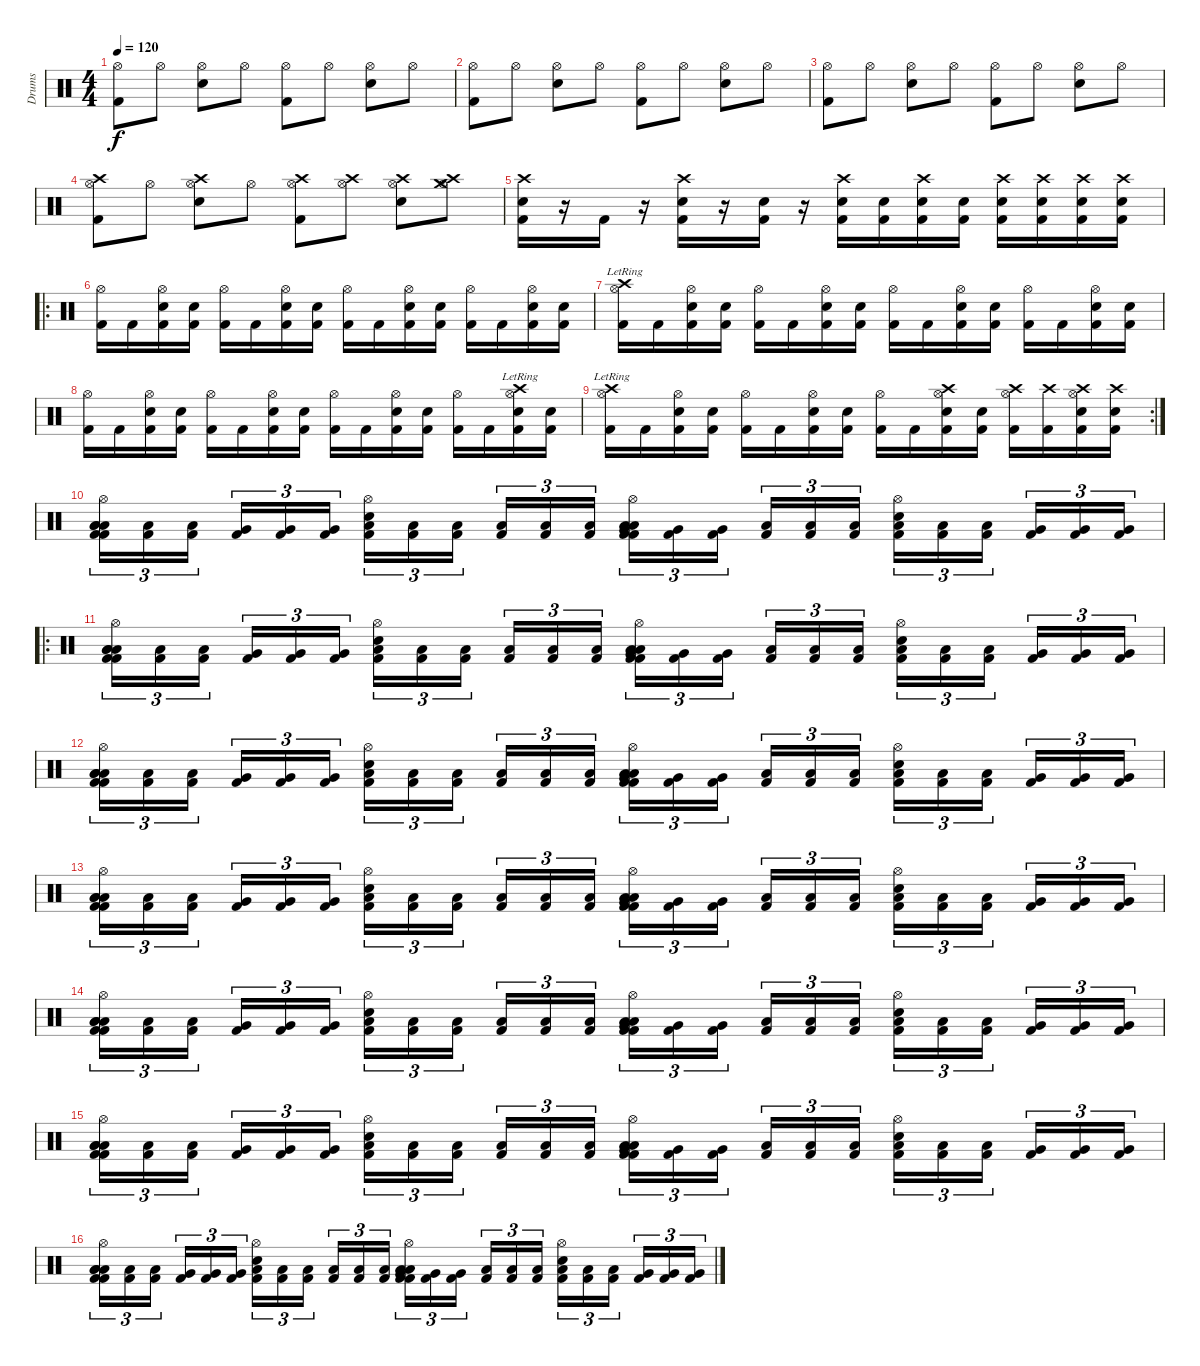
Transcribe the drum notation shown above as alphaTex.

\track ("Drums" "Drums") {instrument percussion}
\staff {score}
\articulation defaults
\ts (4 4)
\tempo 120
\clef neutral
\ks c
("Hi-Hat (open)" "Kick (hit) 2").8{dy f} "Hi-Hat (open)".8 ("Hi-Hat (open)" "Snare (hit) 2").8 "Hi-Hat (open)".8 ("Hi-Hat (open)" "Kick (hit) 2").8 "Hi-Hat (open)".8 ("Hi-Hat (open)" "Snare (hit) 2").8 "Hi-Hat (open)".8 |
("Hi-Hat (open)" "Kick (hit) 2").8 "Hi-Hat (open)".8 ("Hi-Hat (open)" "Snare (hit) 2").8 "Hi-Hat (open)".8 ("Hi-Hat (open)" "Kick (hit) 2").8 "Hi-Hat (open)".8 ("Hi-Hat (open)" "Snare (hit) 2").8 "Hi-Hat (open)".8 |
("Hi-Hat (open)" "Kick (hit) 2").8 "Hi-Hat (open)".8 ("Hi-Hat (open)" "Snare (hit) 2").8 "Hi-Hat (open)".8 ("Hi-Hat (open)" "Kick (hit) 2").8 "Hi-Hat (open)".8 ("Hi-Hat (open)" "Snare (hit) 2").8 "Hi-Hat (open)".8 |
("Hi-Hat (open)" "Crash high (hit)" "Kick (hit) 2").8 "Hi-Hat (open)".8 ("Hi-Hat (open)" "Crash high (hit)" "Snare (hit) 2").8 "Hi-Hat (open)".8 ("Hi-Hat (open)" "Crash high (hit)" "Kick (hit) 2").8 ("Hi-Hat (open)" "Crash high (hit)").8 ("Hi-Hat (open)" "Crash high (hit)" "Snare (hit) 2").8 ("Hi-Hat (open)" "Crash high (hit)" "Crash medium (hit)").8 |
("Crash high (hit)" "Kick (hit) 2" "Snare (hit) 2").16 r.16 "Kick (hit) 2".16 r.16 ("Crash high (hit)" "Kick (hit) 2" "Snare (hit) 2").16 r.16 ("Kick (hit) 2" "Snare (hit) 2").16 r.16 ("Crash high (hit)" "Kick (hit) 2" "Snare (hit) 2").16 ("Kick (hit) 2" "Snare (hit) 2").16 ("Crash high (hit)" "Kick (hit) 2" "Snare (hit) 2").16 ("Kick (hit) 2" "Snare (hit) 2").16 ("Crash high (hit)" "Kick (hit) 2" "Snare (hit) 2").16 ("Crash high (hit)" "Kick (hit) 2" "Snare (hit) 2").16 ("Crash high (hit)" "Kick (hit) 2" "Snare (hit) 2").16 ("Crash high (hit)" "Kick (hit) 2" "Snare (hit) 2").16 |
\ro
("Hi-Hat (open)" "Kick (hit) 2").16 "Kick (hit) 2".16 ("Hi-Hat (open)" "Snare (hit) 2" "Kick (hit) 2").16 ("Snare (hit) 2" "Kick (hit) 2").16 ("Hi-Hat (open)" "Kick (hit) 2").16 "Kick (hit) 2".16 ("Hi-Hat (open)" "Snare (hit) 2" "Kick (hit) 2").16 ("Snare (hit) 2" "Kick (hit) 2").16 ("Hi-Hat (open)" "Kick (hit) 2").16 "Kick (hit) 2".16 ("Hi-Hat (open)" "Snare (hit) 2" "Kick (hit) 2").16 ("Snare (hit) 2" "Kick (hit) 2").16 ("Hi-Hat (open)" "Kick (hit) 2").16 "Kick (hit) 2".16 ("Hi-Hat (open)" "Snare (hit) 2" "Kick (hit) 2").16 ("Snare (hit) 2" "Kick (hit) 2").16 |
("Crash high (hit)"{lr} "Hi-Hat (open)" "Kick (hit) 2").16 "Kick (hit) 2".16 ("Hi-Hat (open)" "Snare (hit) 2" "Kick (hit) 2").16 ("Snare (hit) 2" "Kick (hit) 2").16 ("Hi-Hat (open)" "Kick (hit) 2").16 "Kick (hit) 2".16 ("Hi-Hat (open)" "Snare (hit) 2" "Kick (hit) 2").16 ("Snare (hit) 2" "Kick (hit) 2").16 ("Hi-Hat (open)" "Kick (hit) 2").16 "Kick (hit) 2".16 ("Hi-Hat (open)" "Snare (hit) 2" "Kick (hit) 2").16 ("Snare (hit) 2" "Kick (hit) 2").16 ("Hi-Hat (open)" "Kick (hit) 2").16 "Kick (hit) 2".16 ("Hi-Hat (open)" "Snare (hit) 2" "Kick (hit) 2").16 ("Snare (hit) 2" "Kick (hit) 2").16 |
("Hi-Hat (open)" "Kick (hit) 2").16 "Kick (hit) 2".16 ("Hi-Hat (open)" "Snare (hit) 2" "Kick (hit) 2").16 ("Snare (hit) 2" "Kick (hit) 2").16 ("Hi-Hat (open)" "Kick (hit) 2").16 "Kick (hit) 2".16 ("Hi-Hat (open)" "Snare (hit) 2" "Kick (hit) 2").16 ("Snare (hit) 2" "Kick (hit) 2").16 ("Hi-Hat (open)" "Kick (hit) 2").16 "Kick (hit) 2".16 ("Hi-Hat (open)" "Snare (hit) 2" "Kick (hit) 2").16 ("Snare (hit) 2" "Kick (hit) 2").16 ("Hi-Hat (open)" "Kick (hit) 2").16 "Kick (hit) 2".16 ("Crash high (hit)"{lr} "Hi-Hat (open)" "Snare (hit) 2" "Kick (hit) 2").16 ("Snare (hit) 2" "Kick (hit) 2").16 |
\rc 2
("Crash high (hit)"{lr} "Hi-Hat (open)" "Kick (hit) 2").16 "Kick (hit) 2".16 ("Hi-Hat (open)" "Snare (hit) 2" "Kick (hit) 2").16 ("Snare (hit) 2" "Kick (hit) 2").16 ("Hi-Hat (open)" "Kick (hit) 2").16 "Kick (hit) 2".16 ("Hi-Hat (open)" "Snare (hit) 2" "Kick (hit) 2").16 ("Snare (hit) 2" "Kick (hit) 2").16 ("Hi-Hat (open)" "Kick (hit) 2").16 "Kick (hit) 2".16 ("Crash high (hit)" "Hi-Hat (open)" "Snare (hit) 2" "Kick (hit) 2").16 ("Snare (hit) 2" "Kick (hit) 2").16 ("Crash high (hit)" "Hi-Hat (open)" "Kick (hit) 2").16 ("Crash high (hit)" "Kick (hit) 2").16 ("Crash high (hit)" "Hi-Hat (open)" "Snare (hit) 2" "Kick (hit) 2").16 ("Crash high (hit)" "Snare (hit) 2" "Kick (hit) 2").16 |
("Low Tom (hit)" "Hi-Hat (open)" "Kick (hit) 2" "Kick (hit) 2" "Low Floor Tom (hit)" "Low Floor Tom (hit)").16{tu (3 2)} ("Low Tom (hit)" "Kick (hit) 2").16{tu (3 2)} ("Low Tom (hit)" "Kick (hit) 2").16{tu (3 2)} ("Very Low Tom (hit)" "Kick (hit) 2").16{tu (3 2)} ("Very Low Tom (hit)" "Kick (hit) 2").16{tu (3 2)} ("Very Low Tom (hit)" "Kick (hit) 2").16{tu (3 2)} ("Low Floor Tom (hit)" "Hi-Hat (open)" "Electric Snare (hit)" "Kick (hit) 2").16{tu (3 2)} ("Low Floor Tom (hit)" "Kick (hit) 2").16{tu (3 2)} ("Low Floor Tom (hit)" "Kick (hit) 2").16{tu (3 2)} ("Low Tom (hit)" "Kick (hit) 2").16{tu (3 2)} ("Low Tom (hit)" "Kick (hit) 2").16{tu (3 2)} ("Low Tom (hit)" "Kick (hit) 2").16{tu (3 2)} ("Very Low Tom (hit)" "Hi-Hat (open)" "Kick (hit) 2" "Kick (hit) 2" "Low Floor Tom (hit)" "Low Floor Tom (hit)").16{tu (3 2)} ("Very Low Tom (hit)" "Kick (hit) 2").16{tu (3 2)} ("Very Low Tom (hit)" "Kick (hit) 2").16{tu (3 2)} ("Low Floor Tom (hit)" "Kick (hit) 2").16{tu (3 2)} ("Low Floor Tom (hit)" "Kick (hit) 2").16{tu (3 2)} ("Low Floor Tom (hit)" "Kick (hit) 2").16{tu (3 2)} ("Low Tom (hit)" "Hi-Hat (open)" "Electric Snare (hit)" "Kick (hit) 2").16{tu (3 2)} ("Low Tom (hit)" "Kick (hit) 2").16{tu (3 2)} ("Low Tom (hit)" "Kick (hit) 2").16{tu (3 2)} ("Very Low Tom (hit)" "Kick (hit) 2").16{tu (3 2)} ("Very Low Tom (hit)" "Kick (hit) 2").16{tu (3 2)} ("Very Low Tom (hit)" "Kick (hit) 2").16{tu (3 2)} |
\ro
("Low Tom (hit)" "Hi-Hat (open)" "Kick (hit) 2" "Kick (hit) 2" "Low Floor Tom (hit)" "Low Floor Tom (hit)").16{tu (3 2)} ("Low Tom (hit)" "Kick (hit) 2").16{tu (3 2)} ("Low Tom (hit)" "Kick (hit) 2").16{tu (3 2)} ("Very Low Tom (hit)" "Kick (hit) 2").16{tu (3 2)} ("Very Low Tom (hit)" "Kick (hit) 2").16{tu (3 2)} ("Very Low Tom (hit)" "Kick (hit) 2").16{tu (3 2)} ("Low Floor Tom (hit)" "Hi-Hat (open)" "Electric Snare (hit)" "Kick (hit) 2").16{tu (3 2)} ("Low Floor Tom (hit)" "Kick (hit) 2").16{tu (3 2)} ("Low Floor Tom (hit)" "Kick (hit) 2").16{tu (3 2)} ("Low Tom (hit)" "Kick (hit) 2").16{tu (3 2)} ("Low Tom (hit)" "Kick (hit) 2").16{tu (3 2)} ("Low Tom (hit)" "Kick (hit) 2").16{tu (3 2)} ("Very Low Tom (hit)" "Hi-Hat (open)" "Kick (hit) 2" "Kick (hit) 2" "Low Floor Tom (hit)" "Low Floor Tom (hit)").16{tu (3 2)} ("Very Low Tom (hit)" "Kick (hit) 2").16{tu (3 2)} ("Very Low Tom (hit)" "Kick (hit) 2").16{tu (3 2)} ("Low Floor Tom (hit)" "Kick (hit) 2").16{tu (3 2)} ("Low Floor Tom (hit)" "Kick (hit) 2").16{tu (3 2)} ("Low Floor Tom (hit)" "Kick (hit) 2").16{tu (3 2)} ("Low Tom (hit)" "Hi-Hat (open)" "Electric Snare (hit)" "Kick (hit) 2").16{tu (3 2)} ("Low Tom (hit)" "Kick (hit) 2").16{tu (3 2)} ("Low Tom (hit)" "Kick (hit) 2").16{tu (3 2)} ("Very Low Tom (hit)" "Kick (hit) 2").16{tu (3 2)} ("Very Low Tom (hit)" "Kick (hit) 2").16{tu (3 2)} ("Very Low Tom (hit)" "Kick (hit) 2").16{tu (3 2)} |
("Low Tom (hit)" "Hi-Hat (open)" "Kick (hit) 2" "Kick (hit) 2" "Low Floor Tom (hit)" "Low Floor Tom (hit)").16{tu (3 2)} ("Low Tom (hit)" "Kick (hit) 2").16{tu (3 2)} ("Low Tom (hit)" "Kick (hit) 2").16{tu (3 2)} ("Very Low Tom (hit)" "Kick (hit) 2").16{tu (3 2)} ("Very Low Tom (hit)" "Kick (hit) 2").16{tu (3 2)} ("Very Low Tom (hit)" "Kick (hit) 2").16{tu (3 2)} ("Low Floor Tom (hit)" "Hi-Hat (open)" "Electric Snare (hit)" "Kick (hit) 2").16{tu (3 2)} ("Low Floor Tom (hit)" "Kick (hit) 2").16{tu (3 2)} ("Low Floor Tom (hit)" "Kick (hit) 2").16{tu (3 2)} ("Low Tom (hit)" "Kick (hit) 2").16{tu (3 2)} ("Low Tom (hit)" "Kick (hit) 2").16{tu (3 2)} ("Low Tom (hit)" "Kick (hit) 2").16{tu (3 2)} ("Very Low Tom (hit)" "Hi-Hat (open)" "Kick (hit) 2" "Kick (hit) 2" "Low Floor Tom (hit)" "Low Floor Tom (hit)").16{tu (3 2)} ("Very Low Tom (hit)" "Kick (hit) 2").16{tu (3 2)} ("Very Low Tom (hit)" "Kick (hit) 2").16{tu (3 2)} ("Low Floor Tom (hit)" "Kick (hit) 2").16{tu (3 2)} ("Low Floor Tom (hit)" "Kick (hit) 2").16{tu (3 2)} ("Low Floor Tom (hit)" "Kick (hit) 2").16{tu (3 2)} ("Low Tom (hit)" "Hi-Hat (open)" "Electric Snare (hit)" "Kick (hit) 2").16{tu (3 2)} ("Low Tom (hit)" "Kick (hit) 2").16{tu (3 2)} ("Low Tom (hit)" "Kick (hit) 2").16{tu (3 2)} ("Very Low Tom (hit)" "Kick (hit) 2").16{tu (3 2)} ("Very Low Tom (hit)" "Kick (hit) 2").16{tu (3 2)} ("Very Low Tom (hit)" "Kick (hit) 2").16{tu (3 2)} |
("Low Tom (hit)" "Hi-Hat (open)" "Kick (hit) 2" "Kick (hit) 2" "Low Floor Tom (hit)" "Low Floor Tom (hit)").16{tu (3 2)} ("Low Tom (hit)" "Kick (hit) 2").16{tu (3 2)} ("Low Tom (hit)" "Kick (hit) 2").16{tu (3 2)} ("Very Low Tom (hit)" "Kick (hit) 2").16{tu (3 2)} ("Very Low Tom (hit)" "Kick (hit) 2").16{tu (3 2)} ("Very Low Tom (hit)" "Kick (hit) 2").16{tu (3 2)} ("Low Floor Tom (hit)" "Hi-Hat (open)" "Electric Snare (hit)" "Kick (hit) 2").16{tu (3 2)} ("Low Floor Tom (hit)" "Kick (hit) 2").16{tu (3 2)} ("Low Floor Tom (hit)" "Kick (hit) 2").16{tu (3 2)} ("Low Tom (hit)" "Kick (hit) 2").16{tu (3 2)} ("Low Tom (hit)" "Kick (hit) 2").16{tu (3 2)} ("Low Tom (hit)" "Kick (hit) 2").16{tu (3 2)} ("Very Low Tom (hit)" "Hi-Hat (open)" "Kick (hit) 2" "Kick (hit) 2" "Low Floor Tom (hit)" "Low Floor Tom (hit)").16{tu (3 2)} ("Very Low Tom (hit)" "Kick (hit) 2").16{tu (3 2)} ("Very Low Tom (hit)" "Kick (hit) 2").16{tu (3 2)} ("Low Floor Tom (hit)" "Kick (hit) 2").16{tu (3 2)} ("Low Floor Tom (hit)" "Kick (hit) 2").16{tu (3 2)} ("Low Floor Tom (hit)" "Kick (hit) 2").16{tu (3 2)} ("Low Tom (hit)" "Hi-Hat (open)" "Electric Snare (hit)" "Kick (hit) 2").16{tu (3 2)} ("Low Tom (hit)" "Kick (hit) 2").16{tu (3 2)} ("Low Tom (hit)" "Kick (hit) 2").16{tu (3 2)} ("Very Low Tom (hit)" "Kick (hit) 2").16{tu (3 2)} ("Very Low Tom (hit)" "Kick (hit) 2").16{tu (3 2)} ("Very Low Tom (hit)" "Kick (hit) 2").16{tu (3 2)} |
("Low Tom (hit)" "Hi-Hat (open)" "Kick (hit) 2" "Kick (hit) 2" "Low Floor Tom (hit)" "Low Floor Tom (hit)").16{tu (3 2)} ("Low Tom (hit)" "Kick (hit) 2").16{tu (3 2)} ("Low Tom (hit)" "Kick (hit) 2").16{tu (3 2)} ("Very Low Tom (hit)" "Kick (hit) 2").16{tu (3 2)} ("Very Low Tom (hit)" "Kick (hit) 2").16{tu (3 2)} ("Very Low Tom (hit)" "Kick (hit) 2").16{tu (3 2)} ("Low Floor Tom (hit)" "Hi-Hat (open)" "Electric Snare (hit)" "Kick (hit) 2").16{tu (3 2)} ("Low Floor Tom (hit)" "Kick (hit) 2").16{tu (3 2)} ("Low Floor Tom (hit)" "Kick (hit) 2").16{tu (3 2)} ("Low Tom (hit)" "Kick (hit) 2").16{tu (3 2)} ("Low Tom (hit)" "Kick (hit) 2").16{tu (3 2)} ("Low Tom (hit)" "Kick (hit) 2").16{tu (3 2)} ("Very Low Tom (hit)" "Hi-Hat (open)" "Kick (hit) 2" "Kick (hit) 2" "Low Floor Tom (hit)" "Low Floor Tom (hit)").16{tu (3 2)} ("Very Low Tom (hit)" "Kick (hit) 2").16{tu (3 2)} ("Very Low Tom (hit)" "Kick (hit) 2").16{tu (3 2)} ("Low Floor Tom (hit)" "Kick (hit) 2").16{tu (3 2)} ("Low Floor Tom (hit)" "Kick (hit) 2").16{tu (3 2)} ("Low Floor Tom (hit)" "Kick (hit) 2").16{tu (3 2)} ("Low Tom (hit)" "Hi-Hat (open)" "Electric Snare (hit)" "Kick (hit) 2").16{tu (3 2)} ("Low Tom (hit)" "Kick (hit) 2").16{tu (3 2)} ("Low Tom (hit)" "Kick (hit) 2").16{tu (3 2)} ("Very Low Tom (hit)" "Kick (hit) 2").16{tu (3 2)} ("Very Low Tom (hit)" "Kick (hit) 2").16{tu (3 2)} ("Very Low Tom (hit)" "Kick (hit) 2").16{tu (3 2)} |
("Low Tom (hit)" "Hi-Hat (open)" "Kick (hit) 2" "Kick (hit) 2" "Low Floor Tom (hit)" "Low Floor Tom (hit)").16{tu (3 2)} ("Low Tom (hit)" "Kick (hit) 2").16{tu (3 2)} ("Low Tom (hit)" "Kick (hit) 2").16{tu (3 2)} ("Very Low Tom (hit)" "Kick (hit) 2").16{tu (3 2)} ("Very Low Tom (hit)" "Kick (hit) 2").16{tu (3 2)} ("Very Low Tom (hit)" "Kick (hit) 2").16{tu (3 2)} ("Low Floor Tom (hit)" "Hi-Hat (open)" "Electric Snare (hit)" "Kick (hit) 2").16{tu (3 2)} ("Low Floor Tom (hit)" "Kick (hit) 2").16{tu (3 2)} ("Low Floor Tom (hit)" "Kick (hit) 2").16{tu (3 2)} ("Low Tom (hit)" "Kick (hit) 2").16{tu (3 2)} ("Low Tom (hit)" "Kick (hit) 2").16{tu (3 2)} ("Low Tom (hit)" "Kick (hit) 2").16{tu (3 2)} ("Very Low Tom (hit)" "Hi-Hat (open)" "Kick (hit) 2" "Kick (hit) 2" "Low Floor Tom (hit)" "Low Floor Tom (hit)").16{tu (3 2)} ("Very Low Tom (hit)" "Kick (hit) 2").16{tu (3 2)} ("Very Low Tom (hit)" "Kick (hit) 2").16{tu (3 2)} ("Low Floor Tom (hit)" "Kick (hit) 2").16{tu (3 2)} ("Low Floor Tom (hit)" "Kick (hit) 2").16{tu (3 2)} ("Low Floor Tom (hit)" "Kick (hit) 2").16{tu (3 2)} ("Low Tom (hit)" "Hi-Hat (open)" "Electric Snare (hit)" "Kick (hit) 2").16{tu (3 2)} ("Low Tom (hit)" "Kick (hit) 2").16{tu (3 2)} ("Low Tom (hit)" "Kick (hit) 2").16{tu (3 2)} ("Very Low Tom (hit)" "Kick (hit) 2").16{tu (3 2)} ("Very Low Tom (hit)" "Kick (hit) 2").16{tu (3 2)} ("Very Low Tom (hit)" "Kick (hit) 2").16{tu (3 2)} |
("Low Tom (hit)" "Hi-Hat (open)" "Kick (hit) 2" "Kick (hit) 2" "Low Floor Tom (hit)" "Low Floor Tom (hit)").16{tu (3 2)} ("Low Tom (hit)" "Kick (hit) 2").16{tu (3 2)} ("Low Tom (hit)" "Kick (hit) 2").16{tu (3 2)} ("Very Low Tom (hit)" "Kick (hit) 2").16{tu (3 2)} ("Very Low Tom (hit)" "Kick (hit) 2").16{tu (3 2)} ("Very Low Tom (hit)" "Kick (hit) 2").16{tu (3 2)} ("Low Floor Tom (hit)" "Hi-Hat (open)" "Electric Snare (hit)" "Kick (hit) 2").16{tu (3 2)} ("Low Floor Tom (hit)" "Kick (hit) 2").16{tu (3 2)} ("Low Floor Tom (hit)" "Kick (hit) 2").16{tu (3 2)} ("Low Tom (hit)" "Kick (hit) 2").16{tu (3 2)} ("Low Tom (hit)" "Kick (hit) 2").16{tu (3 2)} ("Low Tom (hit)" "Kick (hit) 2").16{tu (3 2)} ("Very Low Tom (hit)" "Hi-Hat (open)" "Kick (hit) 2" "Kick (hit) 2" "Low Floor Tom (hit)" "Low Floor Tom (hit)").16{tu (3 2)} ("Very Low Tom (hit)" "Kick (hit) 2").16{tu (3 2)} ("Very Low Tom (hit)" "Kick (hit) 2").16{tu (3 2)} ("Low Floor Tom (hit)" "Kick (hit) 2").16{tu (3 2)} ("Low Floor Tom (hit)" "Kick (hit) 2").16{tu (3 2)} ("Low Floor Tom (hit)" "Kick (hit) 2").16{tu (3 2)} ("Low Tom (hit)" "Hi-Hat (open)" "Electric Snare (hit)" "Kick (hit) 2").16{tu (3 2)} ("Low Tom (hit)" "Kick (hit) 2").16{tu (3 2)} ("Low Tom (hit)" "Kick (hit) 2").16{tu (3 2)} ("Very Low Tom (hit)" "Kick (hit) 2").16{tu (3 2)} ("Very Low Tom (hit)" "Kick (hit) 2").16{tu (3 2)} ("Very Low Tom (hit)" "Kick (hit) 2").16{tu (3 2)}
